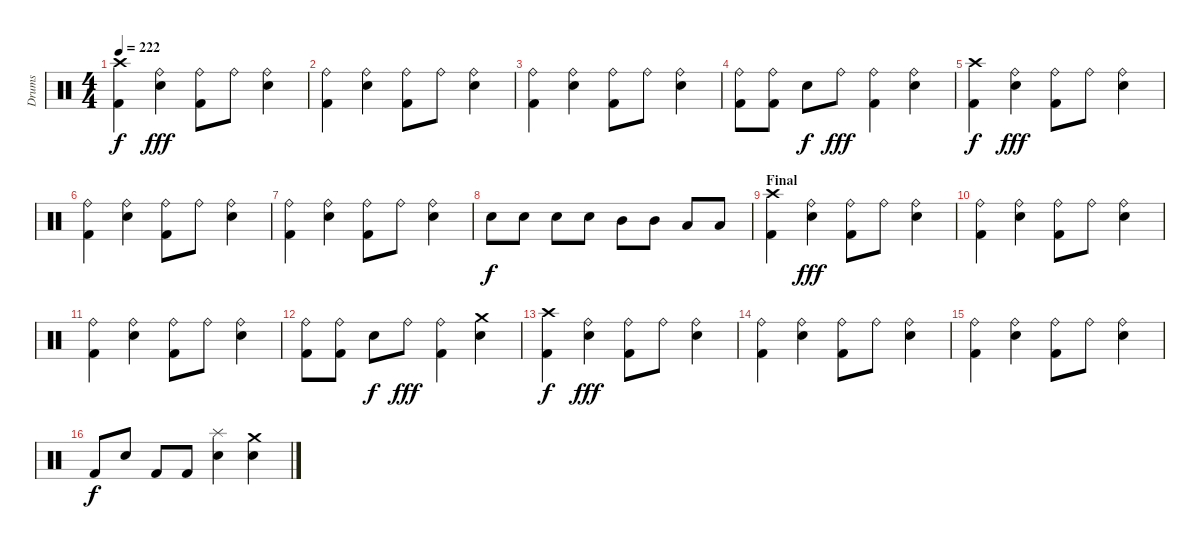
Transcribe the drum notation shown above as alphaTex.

\track ("Drums" "Drums") {instrument percussion}
\staff {score}
\articulation defaults
\ts (4 4)
\tempo 222
\clef neutral
\ks c
("Kick (hit) 2" "Crash high (hit)").4{dy f} ("Electric Snare (hit)" "Ride (bell)").4{dy fff} ("Kick (hit) 2" "Ride (bell)").8 "Ride (bell)".8 ("Electric Snare (hit)" "Ride (bell)").4 |
("Kick (hit) 2" "Ride (bell)").4 ("Electric Snare (hit)" "Ride (bell)").4 ("Kick (hit) 2" "Ride (bell)").8 "Ride (bell)".8 ("Electric Snare (hit)" "Ride (bell)").4 |
("Kick (hit) 2" "Ride (bell)").4 ("Electric Snare (hit)" "Ride (bell)").4 ("Kick (hit) 2" "Ride (bell)").8 "Ride (bell)".8 ("Electric Snare (hit)" "Ride (bell)").4 |
("Kick (hit) 2" "Ride (bell)").8 ("Kick (hit) 2" "Ride (bell)").8 "Electric Snare (hit)".8{dy f} "Ride (bell)".8{dy fff} ("Kick (hit) 2" "Ride (bell)").4 ("Electric Snare (hit)" "Ride (bell)").4 |
("Kick (hit) 2" "Crash high (hit)").4{dy f} ("Electric Snare (hit)" "Ride (bell)").4{dy fff} ("Kick (hit) 2" "Ride (bell)").8 "Ride (bell)".8 ("Electric Snare (hit)" "Ride (bell)").4 |
("Kick (hit) 2" "Ride (bell)").4 ("Electric Snare (hit)" "Ride (bell)").4 ("Kick (hit) 2" "Ride (bell)").8 "Ride (bell)".8 ("Electric Snare (hit)" "Ride (bell)").4 |
("Kick (hit) 2" "Ride (bell)").4 ("Electric Snare (hit)" "Ride (bell)").4 ("Kick (hit) 2" "Ride (bell)").8 "Ride (bell)".8 ("Electric Snare (hit)" "Ride (bell)").4 |
"Electric Snare (hit)".8{dy f} "Electric Snare (hit)".8 "Electric Snare (hit)".8 "Electric Snare (hit)".8 "Mid Tom (hit)".8 "Mid Tom (hit)".8 "Low Tom (hit)".8 "Low Tom (hit)".8 |
\section ("" "Final")
("Kick (hit) 2" "Crash high (hit)").4 ("Electric Snare (hit)" "Ride (bell)").4{dy fff} ("Kick (hit) 2" "Ride (bell)").8 "Ride (bell)".8 ("Electric Snare (hit)" "Ride (bell)").4 |
("Kick (hit) 2" "Ride (bell)").4 ("Electric Snare (hit)" "Ride (bell)").4 ("Kick (hit) 2" "Ride (bell)").8 "Ride (bell)".8 ("Electric Snare (hit)" "Ride (bell)").4 |
("Kick (hit) 2" "Ride (bell)").4 ("Electric Snare (hit)" "Ride (bell)").4 ("Kick (hit) 2" "Ride (bell)").8 "Ride (bell)".8 ("Electric Snare (hit)" "Ride (bell)").4 |
("Kick (hit) 2" "Ride (bell)").8 ("Kick (hit) 2" "Ride (bell)").8 "Electric Snare (hit)".8{dy f} "Ride (bell)".8{dy fff} ("Kick (hit) 2" "Ride (bell)").4 ("Electric Snare (hit)" "Crash medium (hit)").4 |
("Kick (hit) 2" "Crash high (hit)").4{dy f} ("Electric Snare (hit)" "Ride (bell)").4{dy fff} ("Kick (hit) 2" "Ride (bell)").8 "Ride (bell)".8 ("Electric Snare (hit)" "Ride (bell)").4 |
("Kick (hit) 2" "Ride (bell)").4 ("Electric Snare (hit)" "Ride (bell)").4 ("Kick (hit) 2" "Ride (bell)").8 "Ride (bell)".8 ("Electric Snare (hit)" "Ride (bell)").4 |
("Kick (hit) 2" "Ride (bell)").4 ("Electric Snare (hit)" "Ride (bell)").4 ("Kick (hit) 2" "Ride (bell)").8 "Ride (bell)".8 ("Electric Snare (hit)" "Ride (bell)").4 |
"Kick (hit) 2".8{dy f} "Electric Snare (hit)".8 "Kick (hit) 2".8 "Kick (hit) 2".8 ("Electric Snare (hit)" "Splash (hit)").4 ("Electric Snare (hit)" "Crash medium (hit)").4
